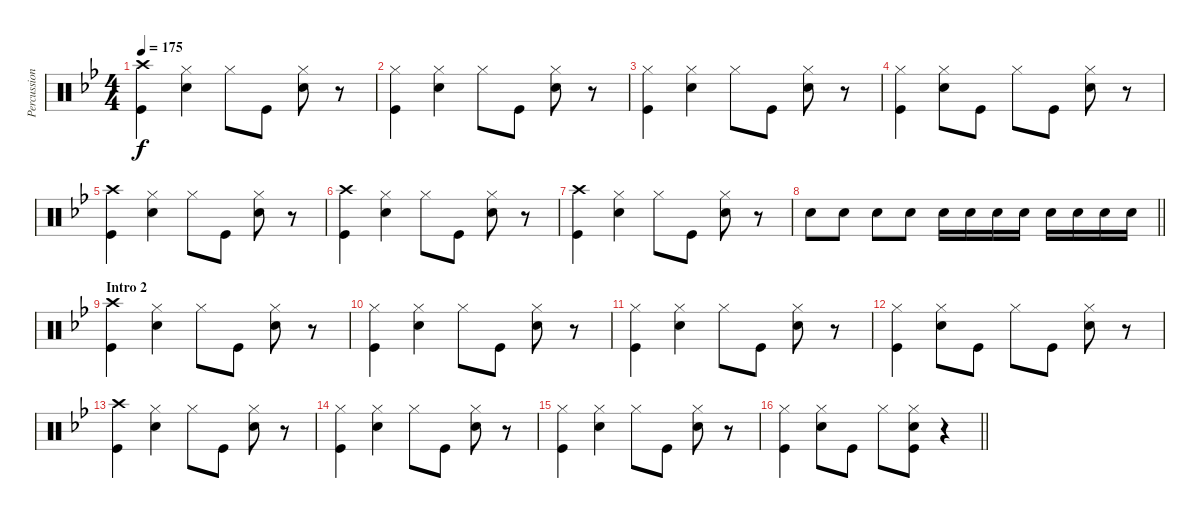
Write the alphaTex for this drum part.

\track ("Percussion" "Percussion") {instrument percussion}
\staff {score}
\articulation defaults
\ts (4 4)
\tempo 175
\clef neutral
\ks bb
("Kick (hit)" "Crash high (hit)").4{dy f} ("Snare (hit) 2" "Hi-Hat (closed)").4 "Hi-Hat (closed)".8 "Kick (hit)".8 ("Snare (hit) 2" "Hi-Hat (closed)").8 r.8 |
("Kick (hit)" "Hi-Hat (closed)").4 ("Snare (hit) 2" "Hi-Hat (closed)").4 "Hi-Hat (closed)".8 "Kick (hit)".8 ("Snare (hit) 2" "Hi-Hat (closed)").8 r.8 |
("Kick (hit)" "Hi-Hat (closed)").4 ("Snare (hit) 2" "Hi-Hat (closed)").4 "Hi-Hat (closed)".8 "Kick (hit)".8 ("Snare (hit) 2" "Hi-Hat (closed)").8 r.8 |
("Kick (hit)" "Hi-Hat (closed)").4 ("Snare (hit) 2" "Hi-Hat (closed)").8 "Kick (hit)".8 "Hi-Hat (closed)".8 "Kick (hit)".8 ("Snare (hit) 2" "Hi-Hat (closed)").8 r.8 |
("Kick (hit)" "Crash high (hit)").4 ("Snare (hit) 2" "Hi-Hat (closed)").4 "Hi-Hat (closed)".8 "Kick (hit)".8 ("Snare (hit) 2" "Hi-Hat (closed)").8 r.8 |
("Kick (hit)" "Crash high (hit)").4 ("Snare (hit) 2" "Hi-Hat (closed)").4 "Hi-Hat (closed)".8 "Kick (hit)".8 ("Snare (hit) 2" "Hi-Hat (closed)").8 r.8 |
("Kick (hit)" "Crash high (hit)").4 ("Snare (hit) 2" "Hi-Hat (closed)").4 "Hi-Hat (closed)".8 "Kick (hit)".8 ("Snare (hit) 2" "Hi-Hat (closed)").8 r.8 |
\barLineRight lightlight "Snare (hit) 2".8 "Snare (hit) 2".8 "Snare (hit) 2".8 "Snare (hit) 2".8 "Snare (hit) 2".16 "Snare (hit) 2".16 "Snare (hit) 2".16 "Snare (hit) 2".16 "Snare (hit) 2".16 "Snare (hit) 2".16 "Snare (hit) 2".16 "Snare (hit) 2".16
|
\section ("" "Intro 2")
("Kick (hit)" "Crash high (hit)").4 ("Snare (hit) 2" "Hi-Hat (closed)").4 "Hi-Hat (closed)".8 "Kick (hit)".8 ("Snare (hit) 2" "Hi-Hat (closed)").8 r.8 |
("Kick (hit)" "Hi-Hat (closed)").4 ("Snare (hit) 2" "Hi-Hat (closed)").4 "Hi-Hat (closed)".8 "Kick (hit)".8 ("Snare (hit) 2" "Hi-Hat (closed)").8 r.8 |
("Kick (hit)" "Hi-Hat (closed)").4 ("Snare (hit) 2" "Hi-Hat (closed)").4 "Hi-Hat (closed)".8 "Kick (hit)".8 ("Snare (hit) 2" "Hi-Hat (closed)").8 r.8 |
("Kick (hit)" "Hi-Hat (closed)").4 ("Snare (hit) 2" "Hi-Hat (closed)").8 "Kick (hit)".8 "Hi-Hat (closed)".8 "Kick (hit)".8 ("Snare (hit) 2" "Hi-Hat (closed)").8 r.8 |
("Kick (hit)" "Crash high (hit)").4 ("Snare (hit) 2" "Hi-Hat (closed)").4 "Hi-Hat (closed)".8 "Kick (hit)".8 ("Snare (hit) 2" "Hi-Hat (closed)").8 r.8 |
("Kick (hit)" "Hi-Hat (closed)").4 ("Snare (hit) 2" "Hi-Hat (closed)").4 "Hi-Hat (closed)".8 "Kick (hit)".8 ("Snare (hit) 2" "Hi-Hat (closed)").8 r.8 |
("Kick (hit)" "Hi-Hat (closed)").4 ("Snare (hit) 2" "Hi-Hat (closed)").4 "Hi-Hat (closed)".8 "Kick (hit)".8 ("Snare (hit) 2" "Hi-Hat (closed)").8 r.8 |
\barLineRight lightlight
("Kick (hit)" "Hi-Hat (closed)").4 ("Snare (hit) 2" "Hi-Hat (closed)").8 "Kick (hit)".8 "Hi-Hat (closed)".8 ("Kick (hit)" "Snare (hit) 2" "Hi-Hat (closed)").8 r.4
